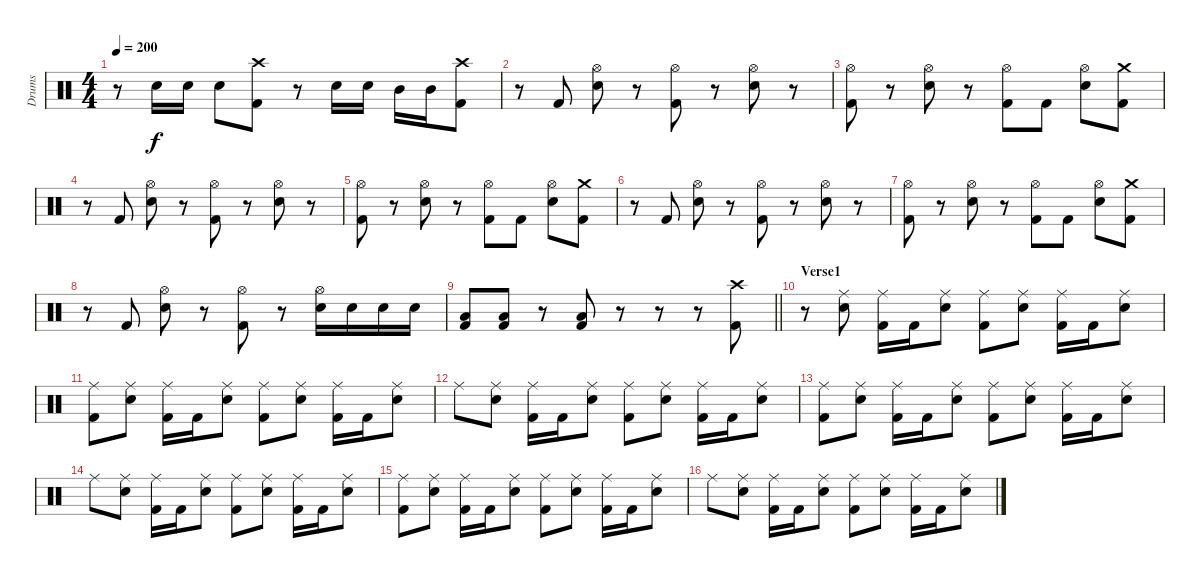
\track ("Drums" "Drums") {instrument percussion}
\staff {score}
\articulation defaults
\ts (4 4)
\tempo 200
\clef neutral
\ks c
r.8{dy f} "Snare (hit) 2".16 "Snare (hit) 2".16 "Snare (hit) 2".8 ("Crash high (hit)" "Kick (hit) 2").8 r.8 "Snare (hit) 2".16 "Snare (hit) 2".16 "Mid Tom (hit)".16 "Mid Tom (hit)".16 ("Crash high (hit)" "Kick (hit) 2").8 |
r.8 "Kick (hit) 2".8 ("Hi-Hat (open)" "Snare (hit) 2").8 r.8 ("Hi-Hat (open)" "Kick (hit) 2").8 r.8 ("Hi-Hat (open)" "Snare (hit) 2").8 r.8 |
("Hi-Hat (open)" "Kick (hit) 2").8 r.8 ("Hi-Hat (open)" "Snare (hit) 2").8 r.8 ("Hi-Hat (open)" "Kick (hit) 2").8 "Kick (hit) 2".8 ("Hi-Hat (open)" "Snare (hit) 2").8 ("Crash medium (hit)" "Kick (hit) 2").8 |
r.8 "Kick (hit) 2".8 ("Hi-Hat (open)" "Snare (hit) 2").8 r.8 ("Hi-Hat (open)" "Kick (hit) 2").8 r.8 ("Hi-Hat (open)" "Snare (hit) 2").8 r.8 |
("Hi-Hat (open)" "Kick (hit) 2").8 r.8 ("Hi-Hat (open)" "Snare (hit) 2").8 r.8 ("Hi-Hat (open)" "Kick (hit) 2").8 "Kick (hit) 2".8 ("Hi-Hat (open)" "Snare (hit) 2").8 ("Crash medium (hit)" "Kick (hit) 2").8 |
r.8 "Kick (hit) 2".8 ("Hi-Hat (open)" "Snare (hit) 2").8 r.8 ("Hi-Hat (open)" "Kick (hit) 2").8 r.8 ("Hi-Hat (open)" "Snare (hit) 2").8 r.8 |
("Hi-Hat (open)" "Kick (hit) 2").8 r.8 ("Hi-Hat (open)" "Snare (hit) 2").8 r.8 ("Hi-Hat (open)" "Kick (hit) 2").8 "Kick (hit) 2".8 ("Hi-Hat (open)" "Snare (hit) 2").8 ("Crash medium (hit)" "Kick (hit) 2").8 |
r.8 "Kick (hit) 2".8 ("Hi-Hat (open)" "Snare (hit) 2").8 r.8 ("Hi-Hat (open)" "Kick (hit) 2").8 r.8 ("Hi-Hat (open)" "Snare (hit) 2").16 "Snare (hit) 2".16 "Snare (hit) 2".16 "Snare (hit) 2".16 |
\barLineRight lightlight
("Low Tom (hit)" "Kick (hit) 2").8 ("Low Tom (hit)" "Kick (hit) 2").8 r.8 ("Low Tom (hit)" "Kick (hit) 2").8 r.8 r.8 r.8 ("Crash high (hit)" "Kick (hit) 2").8 |
\section ("" "Verse1")
r.8 ("Ride (middle)" "Snare (hit) 2").8 ("Ride (middle)" "Kick (hit) 2").16 "Kick (hit) 2".16 ("Ride (middle)" "Snare (hit) 2").8 ("Ride (middle)" "Kick (hit) 2").8 ("Ride (middle)" "Snare (hit) 2").8 ("Ride (middle)" "Kick (hit) 2").16 "Kick (hit) 2".16 ("Ride (middle)" "Snare (hit) 2").8 |
("Ride (middle)" "Kick (hit) 2").8 ("Ride (middle)" "Snare (hit) 2").8 ("Ride (middle)" "Kick (hit) 2").16 "Kick (hit) 2".16 ("Ride (middle)" "Snare (hit) 2").8 ("Ride (middle)" "Kick (hit) 2").8 ("Ride (middle)" "Snare (hit) 2").8 ("Ride (middle)" "Kick (hit) 2").16 "Kick (hit) 2".16 ("Ride (middle)" "Snare (hit) 2").8 |
"Ride (middle)".8 ("Ride (middle)" "Snare (hit) 2").8 ("Ride (middle)" "Kick (hit) 2").16 "Kick (hit) 2".16 ("Ride (middle)" "Snare (hit) 2").8 ("Ride (middle)" "Kick (hit) 2").8 ("Ride (middle)" "Snare (hit) 2").8 ("Ride (middle)" "Kick (hit) 2").16 "Kick (hit) 2".16 ("Ride (middle)" "Snare (hit) 2").8 |
("Ride (middle)" "Kick (hit) 2").8 ("Ride (middle)" "Snare (hit) 2").8 ("Ride (middle)" "Kick (hit) 2").16 "Kick (hit) 2".16 ("Ride (middle)" "Snare (hit) 2").8 ("Ride (middle)" "Kick (hit) 2").8 ("Ride (middle)" "Snare (hit) 2").8 ("Ride (middle)" "Kick (hit) 2").16 "Kick (hit) 2".16 ("Ride (middle)" "Snare (hit) 2").8 |
"Ride (middle)".8 ("Ride (middle)" "Snare (hit) 2").8 ("Ride (middle)" "Kick (hit) 2").16 "Kick (hit) 2".16 ("Ride (middle)" "Snare (hit) 2").8 ("Ride (middle)" "Kick (hit) 2").8 ("Ride (middle)" "Snare (hit) 2").8 ("Ride (middle)" "Kick (hit) 2").16 "Kick (hit) 2".16 ("Ride (middle)" "Snare (hit) 2").8 |
("Ride (middle)" "Kick (hit) 2").8 ("Ride (middle)" "Snare (hit) 2").8 ("Ride (middle)" "Kick (hit) 2").16 "Kick (hit) 2".16 ("Ride (middle)" "Snare (hit) 2").8 ("Ride (middle)" "Kick (hit) 2").8 ("Ride (middle)" "Snare (hit) 2").8 ("Ride (middle)" "Kick (hit) 2").16 "Kick (hit) 2".16 ("Ride (middle)" "Snare (hit) 2").8 |
"Ride (middle)".8 ("Ride (middle)" "Snare (hit) 2").8 ("Ride (middle)" "Kick (hit) 2").16 "Kick (hit) 2".16 ("Ride (middle)" "Snare (hit) 2").8 ("Ride (middle)" "Kick (hit) 2").8 ("Ride (middle)" "Snare (hit) 2").8 ("Ride (middle)" "Kick (hit) 2").16 "Kick (hit) 2".16 ("Ride (middle)" "Snare (hit) 2").8
